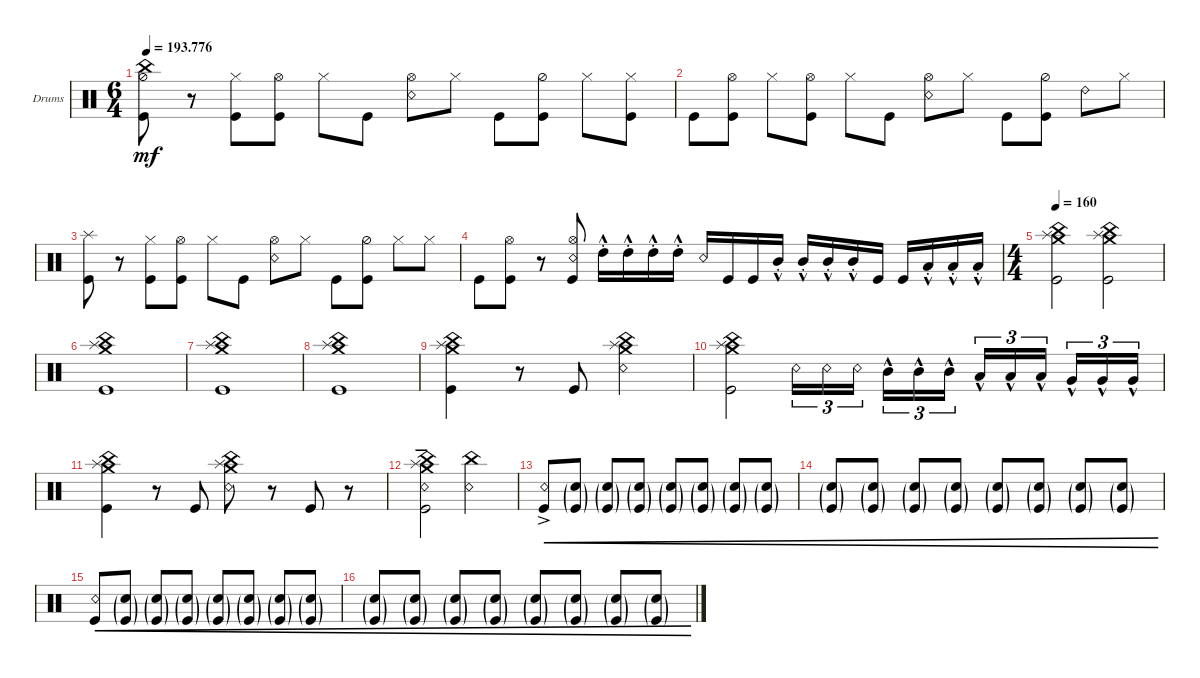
\defaultSystemsLayout 4
\bracketExtendMode groupsimilarinstruments
\firstSystemTrackNameOrientation horizontal
\otherSystemsTrackNameOrientation horizontal
\track ("Drumkit" "Drums") {multiBarRest instrument percussion}
\staff {score}
\articulation defaults
\ts (6 4)
\tempo
193.776
\accidentals auto
\clef neutral
\ottava regular
\simile none
\scale
0.333333
\ks c
("Kick (hit)" "Hi-Hat (half)" "China (hit)").8{dy mf} r.8 ("Hi-Hat (closed)" "Kick (hit)").8 ("Kick (hit)" "Hi-Hat (open)").8 "Hi-Hat (closed)".8 "Kick (hit)".8 ("Snare (rim shot)" "Hi-Hat (open)").8 "Hi-Hat (closed)".8 "Kick (hit)".8 ("Kick (hit)" "Hi-Hat (half)").8 "Hi-Hat (closed)".8 ("Hi-Hat (closed)" "Kick (hit)").8 |
\scale
0.333333 "Kick (hit)".8 ("Kick (hit)" "Hi-Hat (open)").8 "Hi-Hat (closed)".8 ("Kick (hit)" "Hi-Hat (open)").8 "Hi-Hat (closed)".8 "Kick (hit)".8 ("Snare (rim shot)" "Hi-Hat (open)").8 "Hi-Hat (closed)".8 "Kick (hit)".8 ("Kick (hit)" "Hi-Hat (half)").8 "Ride (bell) 2".8 "Hi-Hat (closed)".8 |
\scale
0.333333 ("Kick (hit)" "Splash (hit)").8 r.8 ("Hi-Hat (closed)" "Kick (hit)").8 ("Kick (hit)" "Hi-Hat (open)").8 "Hi-Hat (closed)".8 "Kick (hit)".8 ("Snare (rim shot)" "Hi-Hat (open)").8 "Hi-Hat (closed)".8 "Kick (hit)".8 ("Kick (hit)" "Hi-Hat (half)").8 "Hi-Hat (closed)".8 "Hi-Hat (closed)".8 |
\scale
0.333333 "Kick (hit)".8 ("Kick (hit)" "Hi-Hat (open)").8 r.8 ("Kick (hit)" "Hi-Hat (open)" "Snare (rim shot)").8 "High Tom (hit)"{hac st}.16 "High Tom (hit)"{hac st}.16 "High Tom (hit)"{hac st}.16 "High Tom (hit)"{hac st}.16 "Snare (rim shot)".16 "Kick (hit)".16 "Kick (hit)".16 "Mid Tom (hit)"{hac st}.16 "Mid Tom (hit)"{hac st}.16 "Mid Tom (hit)"{hac st}.16 "Mid Tom (hit)"{hac st}.16 "Kick (hit)".16 "Kick (hit)".16 "Low Tom (hit)"{hac st}.16 "Low Tom (hit)"{hac st}.16 "Low Tom (hit)"{hac st}.16 |
\ts (4 4)
\tempo (160 0.0375)
\scale
0.333333 ("Kick (hit)" "China (hit)" "Splash (hit)" "Crash medium (hit)").2 ("Kick (hit)" "China (hit)" "Splash (hit)" "Crash medium (hit)").2 |
("Kick (hit)" "China (hit)" "Splash (hit)" "Crash medium (hit)").1 |
("Kick (hit)" "China (hit)" "Splash (hit)" "Crash medium (hit)").1 |
("Kick (hit)" "China (hit)" "Splash (hit)" "Crash medium (hit)").1 |
("Kick (hit)" "China (hit)" "Splash (hit)" "Crash medium (hit)").4 r.8 "Kick (hit)".8 ("China (hit)" "Splash (hit)" "Crash medium (hit)" "Snare (rim shot)").4 |
("Kick (hit)" "China (hit)" "Splash (hit)" "Crash medium (hit)").2 "Snare (rim shot)".16{tu (3 2)} "Snare (rim shot)".16{tu (3 2)} "Snare (rim shot)".16{tu (3 2)} "Mid Tom (hit)"{hac}.16{tu (3 2)} "Mid Tom (hit)"{hac}.16{tu (3 2)} "Mid Tom (hit)"{hac}.16{tu (3 2)} "Low Tom (hit)"{hac}.16{tu (3 2)} "Low Tom (hit)"{hac}.16{tu (3 2)} "Low Tom (hit)"{hac}.16{tu (3 2)} "Very Low Tom (hit)"{hac}.16{tu (3 2)} "Very Low Tom (hit)"{hac}.16{tu (3 2)} "Very Low Tom (hit)"{hac}.16{tu (3 2)} |
("Kick (hit)" "China (hit)" "Splash (hit)" "Crash medium (hit)").4 r.8 "Kick (hit)".8 ("China (hit)" "Splash (hit)" "Crash medium (hit)" "Snare (rim shot)").8 r.8 "Kick (hit)".8 r.8 |
("Kick (hit)"{ten} "China (hit)" "Splash (hit)" "Crash medium (hit)" "Snare (rim shot)").2 ("Snare (rim shot)" "China (hit)").2 |
("Snare (rim shot)"{ac} "Kick (hit)").8{cre} ("Kick (hit)"{g} "Snare (hit) 2"{g}).8{cre} ("Kick (hit)"{g} "Snare (hit) 2"{g}).8{cre} ("Kick (hit)"{g} "Snare (hit) 2"{g}).8{cre} ("Kick (hit)"{g} "Snare (hit) 2"{g}).8{cre} ("Kick (hit)"{g} "Snare (hit) 2"{g}).8{cre} ("Kick (hit)"{g} "Snare (hit) 2"{g}).8{cre} ("Kick (hit)"{g} "Snare (hit) 2"{g}).8{cre} |
("Kick (hit)"{g} "Snare (hit) 2"{g}).8{cre} ("Kick (hit)"{g} "Snare (hit) 2"{g}).8{cre} ("Kick (hit)"{g} "Snare (hit) 2"{g}).8{cre} ("Kick (hit)"{g} "Snare (hit) 2"{g}).8{cre} ("Kick (hit)"{g} "Snare (hit) 2"{g}).8{cre} ("Kick (hit)"{g} "Snare (hit) 2"{g}).8{cre} ("Kick (hit)"{g} "Snare (hit) 2"{g}).8{cre} ("Kick (hit)"{g} "Snare (hit) 2"{g}).8{cre} |
("Kick (hit)" "Snare (rim shot)").8{cre} ("Kick (hit)"{g} "Snare (hit) 2"{g}).8{cre} ("Kick (hit)"{g} "Snare (hit) 2"{g}).8{cre} ("Kick (hit)"{g} "Snare (hit) 2"{g}).8{cre} ("Snare (hit) 2"{g} "Kick (hit)"{g}).8{cre} ("Snare (hit) 2"{g} "Kick (hit)"{g}).8{cre} ("Snare (hit) 2"{g} "Kick (hit)"{g}).8{cre} ("Snare (hit) 2"{g} "Kick (hit)"{g}).8{cre} |
("Snare (hit) 2"{g} "Kick (hit)"{g}).8{cre} ("Snare (hit) 2"{g} "Kick (hit)"{g}).8{cre} ("Snare (hit) 2"{g} "Kick (hit)"{g}).8{cre} ("Snare (hit) 2"{g} "Kick (hit)"{g}).8{cre} ("Snare (hit) 2"{g} "Kick (hit)"{g}).8{cre} ("Snare (hit) 2"{g} "Kick (hit)"{g}).8{cre} ("Snare (hit) 2"{g} "Kick (hit)"{g}).8{cre} ("Snare (hit) 2"{g} "Kick (hit)"{g}).8{cre}
